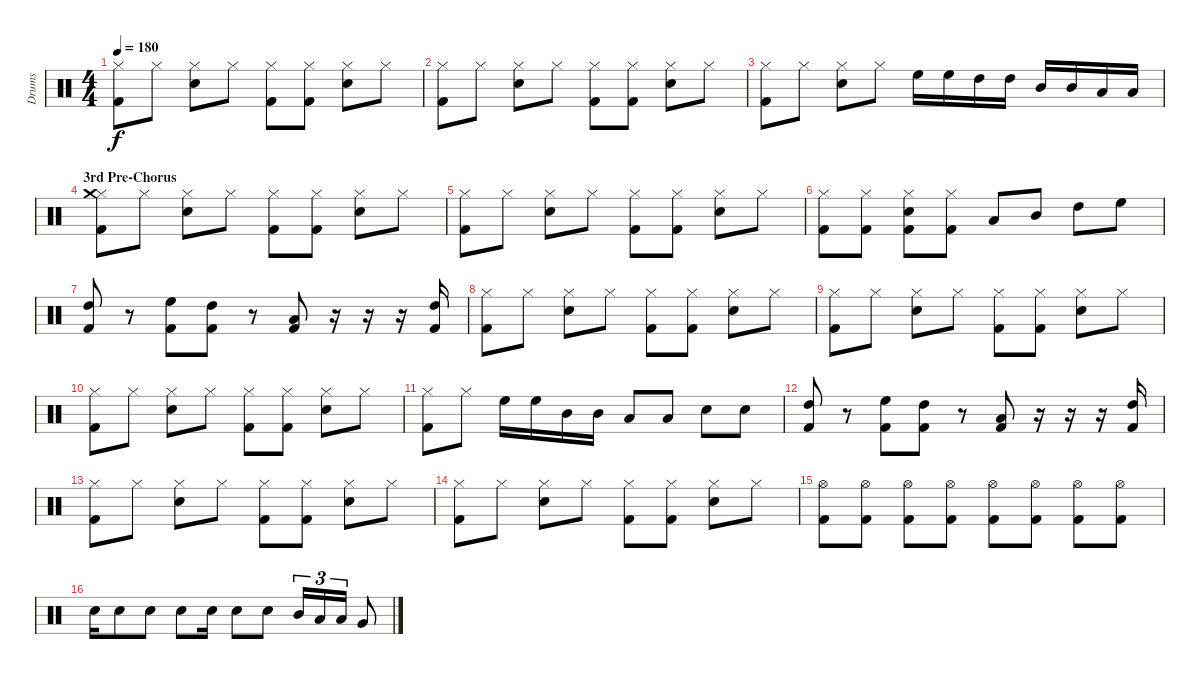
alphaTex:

\track ("Drums" "Drums") {instrument percussion}
\staff {score}
\articulation defaults
\ts (4 4)
\tempo 180
\clef neutral
\ks c
("Hi-Hat (closed)" "Kick (hit) 2").8{dy f} "Hi-Hat (closed)".8 ("Hi-Hat (closed)" "Snare (hit) 2").8 "Hi-Hat (closed)".8 ("Hi-Hat (closed)" "Kick (hit) 2").8 ("Hi-Hat (closed)" "Kick (hit) 2").8 ("Hi-Hat (closed)" "Snare (hit) 2").8 "Hi-Hat (closed)".8 |
("Hi-Hat (closed)" "Kick (hit) 2").8 "Hi-Hat (closed)".8 ("Hi-Hat (closed)" "Snare (hit) 2").8 "Hi-Hat (closed)".8 ("Hi-Hat (closed)" "Kick (hit) 2").8 ("Hi-Hat (closed)" "Kick (hit) 2").8 ("Hi-Hat (closed)" "Snare (hit) 2").8 "Hi-Hat (closed)".8 |
("Hi-Hat (closed)" "Kick (hit) 2").8 "Hi-Hat (closed)".8 ("Hi-Hat (closed)" "Snare (hit) 2").8 "Hi-Hat (closed)".8 "High Floor Tom (hit)".16 "High Floor Tom (hit)".16 "High Tom (hit)".16 "High Tom (hit)".16 "Mid Tom (hit)".16 "Mid Tom (hit)".16 "Low Tom (hit)".16 "Low Tom (hit)".16 |
\section ("" "3rd Pre-Chorus")
("Hi-Hat (closed)" "Crash medium (hit)" "Kick (hit) 2").8 "Hi-Hat (closed)".8 ("Hi-Hat (closed)" "Snare (hit) 2").8 "Hi-Hat (closed)".8 ("Hi-Hat (closed)" "Kick (hit) 2").8 ("Hi-Hat (closed)" "Kick (hit) 2").8 ("Hi-Hat (closed)" "Snare (hit) 2").8 "Hi-Hat (closed)".8 |
("Hi-Hat (closed)" "Kick (hit) 2").8 "Hi-Hat (closed)".8 ("Hi-Hat (closed)" "Snare (hit) 2").8 "Hi-Hat (closed)".8 ("Hi-Hat (closed)" "Kick (hit) 2").8 ("Hi-Hat (closed)" "Kick (hit) 2").8 ("Hi-Hat (closed)" "Snare (hit) 2").8 "Hi-Hat (closed)".8 |
("Hi-Hat (closed)" "Kick (hit) 2").8 ("Hi-Hat (closed)" "Kick (hit) 2").8 ("Hi-Hat (closed)" "Snare (hit) 2" "Kick (hit) 2").8 ("Hi-Hat (closed)" "Kick (hit) 2").8 "Low Tom (hit)".8 "Mid Tom (hit)".8 "High Tom (hit)".8 "High Floor Tom (hit)".8 |
("High Tom (hit)" "Kick (hit) 2").8 r.8 ("High Floor Tom (hit)" "Kick (hit) 2").8 ("High Tom (hit)" "Kick (hit) 2").8 r.8 ("Low Floor Tom (hit)" "Kick (hit) 2").8 r.16 r.16 r.16 ("High Tom (hit)" "Kick (hit) 2").16 |
("Hi-Hat (closed)" "Kick (hit) 2").8 "Hi-Hat (closed)".8 ("Hi-Hat (closed)" "Snare (hit) 2").8 "Hi-Hat (closed)".8 ("Hi-Hat (closed)" "Kick (hit) 2").8 ("Hi-Hat (closed)" "Kick (hit) 2").8 ("Hi-Hat (closed)" "Snare (hit) 2").8 "Hi-Hat (closed)".8 |
("Hi-Hat (closed)" "Kick (hit) 2").8 "Hi-Hat (closed)".8 ("Hi-Hat (closed)" "Snare (hit) 2").8 "Hi-Hat (closed)".8 ("Hi-Hat (closed)" "Kick (hit) 2").8 ("Hi-Hat (closed)" "Kick (hit) 2").8 ("Hi-Hat (closed)" "Snare (hit) 2").8 "Hi-Hat (closed)".8 |
("Hi-Hat (closed)" "Kick (hit) 2").8 "Hi-Hat (closed)".8 ("Hi-Hat (closed)" "Snare (hit) 2").8 "Hi-Hat (closed)".8 ("Hi-Hat (closed)" "Kick (hit) 2").8 ("Hi-Hat (closed)" "Kick (hit) 2").8 ("Hi-Hat (closed)" "Snare (hit) 2").8 "Hi-Hat (closed)".8 |
("Hi-Hat (closed)" "Kick (hit) 2").8 "Hi-Hat (closed)".8 "High Floor Tom (hit)".16 "High Floor Tom (hit)".16 "Mid Tom (hit)".16 "Mid Tom (hit)".16 "Low Floor Tom (hit)".8 "Low Floor Tom (hit)".8 "Snare (hit) 2".8 "Snare (hit) 2".8 |
("High Tom (hit)" "Kick (hit) 2").8 r.8 ("High Floor Tom (hit)" "Kick (hit) 2").8 ("High Tom (hit)" "Kick (hit) 2").8 r.8 ("Low Floor Tom (hit)" "Kick (hit) 2").8 r.16 r.16 r.16 ("High Tom (hit)" "Kick (hit) 2").16 |
("Hi-Hat (closed)" "Kick (hit) 2").8 "Hi-Hat (closed)".8 ("Hi-Hat (closed)" "Snare (hit) 2").8 "Hi-Hat (closed)".8 ("Hi-Hat (closed)" "Kick (hit) 2").8 ("Hi-Hat (closed)" "Kick (hit) 2").8 ("Hi-Hat (closed)" "Snare (hit) 2").8 "Hi-Hat (closed)".8 |
("Hi-Hat (closed)" "Kick (hit) 2").8 "Hi-Hat (closed)".8 ("Hi-Hat (closed)" "Snare (hit) 2").8 "Hi-Hat (closed)".8 ("Hi-Hat (closed)" "Kick (hit) 2").8 ("Hi-Hat (closed)" "Kick (hit) 2").8 ("Hi-Hat (closed)" "Snare (hit) 2").8 "Hi-Hat (closed)".8 |
("Hi-Hat (open)" "Kick (hit) 2").8 ("Hi-Hat (open)" "Kick (hit) 2").8 ("Hi-Hat (open)" "Kick (hit) 2").8 ("Hi-Hat (open)" "Kick (hit) 2").8 ("Hi-Hat (open)" "Kick (hit) 2").8 ("Hi-Hat (open)" "Kick (hit) 2").8 ("Hi-Hat (open)" "Kick (hit) 2").8 ("Hi-Hat (open)" "Kick (hit) 2").8 |
"Snare (hit) 2".16 "Snare (hit) 2".8 "Snare (hit) 2".8 "Snare (hit) 2".8 "Snare (hit) 2".16 "Snare (hit) 2".8 "Snare (hit) 2".8 "Mid Tom (hit)".16{tu (3 2)} "Low Tom (hit)".16{tu (3 2)} "Low Tom (hit)".16{tu (3 2)} "Very Low Tom (hit)".8
